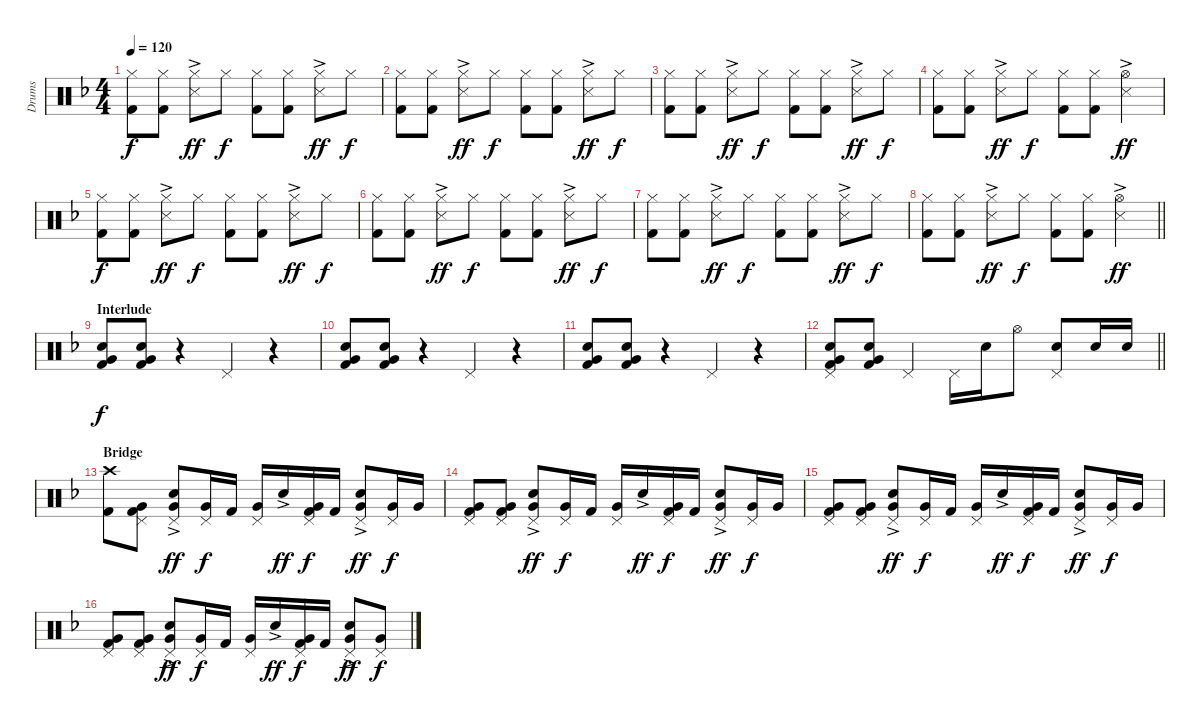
\track ("Drums" "Drums") {instrument percussion}
\staff {score}
\articulation defaults
\ts (4 4)
\tempo 120
\clef neutral
\ks f
("Hi-Hat (closed)" "Kick (hit) 2").8{dy f} ("Hi-Hat (closed)" "Kick (hit) 2").8 ("Hi-Hat (closed)" "Snare (side stick) 3"{ac}).8{dy ff} "Hi-Hat (closed)".8{dy f} ("Hi-Hat (closed)" "Kick (hit) 2").8 ("Hi-Hat (closed)" "Kick (hit) 2").8 ("Hi-Hat (closed)" "Snare (side stick) 3"{ac}).8{dy ff} "Hi-Hat (closed)".8{dy f} |
("Hi-Hat (closed)" "Kick (hit) 2").8 ("Hi-Hat (closed)" "Kick (hit) 2").8 ("Hi-Hat (closed)" "Snare (side stick) 3"{ac}).8{dy ff} "Hi-Hat (closed)".8{dy f} ("Hi-Hat (closed)" "Kick (hit) 2").8 ("Hi-Hat (closed)" "Kick (hit) 2").8 ("Hi-Hat (closed)" "Snare (side stick) 3"{ac}).8{dy ff} "Hi-Hat (closed)".8{dy f} |
("Hi-Hat (closed)" "Kick (hit) 2").8 ("Hi-Hat (closed)" "Kick (hit) 2").8 ("Hi-Hat (closed)" "Snare (side stick) 3"{ac}).8{dy ff} "Hi-Hat (closed)".8{dy f} ("Hi-Hat (closed)" "Kick (hit) 2").8 ("Hi-Hat (closed)" "Kick (hit) 2").8 ("Hi-Hat (closed)" "Snare (side stick) 3"{ac}).8{dy ff} "Hi-Hat (closed)".8{dy f} |
("Hi-Hat (closed)" "Kick (hit) 2").8 ("Hi-Hat (closed)" "Kick (hit) 2").8 ("Hi-Hat (closed)" "Snare (side stick) 3"{ac}).8{dy ff} "Hi-Hat (closed)".8{dy f} ("Hi-Hat (closed)" "Kick (hit) 2").8 ("Hi-Hat (closed)" "Kick (hit) 2").8 ("Hi-Hat (open)" "Snare (side stick) 3"{ac}).4{dy ff} |
("Hi-Hat (closed)" "Kick (hit) 2").8{dy f} ("Hi-Hat (closed)" "Kick (hit) 2").8 ("Hi-Hat (closed)" "Snare (side stick) 3"{ac}).8{dy ff} "Hi-Hat (closed)".8{dy f} ("Hi-Hat (closed)" "Kick (hit) 2").8 ("Hi-Hat (closed)" "Kick (hit) 2").8 ("Hi-Hat (closed)" "Snare (side stick) 3"{ac}).8{dy ff} "Hi-Hat (closed)".8{dy f} |
("Hi-Hat (closed)" "Kick (hit) 2").8 ("Hi-Hat (closed)" "Kick (hit) 2").8 ("Hi-Hat (closed)" "Snare (side stick) 3"{ac}).8{dy ff} "Hi-Hat (closed)".8{dy f} ("Hi-Hat (closed)" "Kick (hit) 2").8 ("Hi-Hat (closed)" "Kick (hit) 2").8 ("Hi-Hat (closed)" "Snare (side stick) 3"{ac}).8{dy ff} "Hi-Hat (closed)".8{dy f} |
("Hi-Hat (closed)" "Kick (hit) 2").8 ("Hi-Hat (closed)" "Kick (hit) 2").8 ("Hi-Hat (closed)" "Snare (side stick) 3"{ac}).8{dy ff} "Hi-Hat (closed)".8{dy f} ("Hi-Hat (closed)" "Kick (hit) 2").8 ("Hi-Hat (closed)" "Kick (hit) 2").8 ("Hi-Hat (closed)" "Snare (side stick) 3"{ac}).8{dy ff} "Hi-Hat (closed)".8{dy f} |
\barLineRight lightlight
("Hi-Hat (closed)" "Kick (hit) 2").8 ("Hi-Hat (closed)" "Kick (hit) 2").8 ("Hi-Hat (closed)" "Snare (side stick) 3"{ac}).8{dy ff} "Hi-Hat (closed)".8{dy f} ("Hi-Hat (closed)" "Kick (hit) 2").8 ("Hi-Hat (closed)" "Kick (hit) 2").8 ("Hi-Hat (open)" "Snare (side stick) 3"{ac}).4{dy ff} |
\section ("" "Interlude")
("Electric Snare (hit)" "Very Low Tom (hit)" "Kick (hit) 2").8{dy f} ("Electric Snare (hit)" "Very Low Tom (hit)" "Kick (hit) 2").8 r.4 "Pedal Hi-Hat (hit)".4 r.4 |
("Electric Snare (hit)" "Very Low Tom (hit)" "Kick (hit) 2").8 ("Electric Snare (hit)" "Very Low Tom (hit)" "Kick (hit) 2").8 r.4 "Pedal Hi-Hat (hit)".4 r.4 |
("Electric Snare (hit)" "Very Low Tom (hit)" "Kick (hit) 2").8 ("Electric Snare (hit)" "Very Low Tom (hit)" "Kick (hit) 2").8 r.4 "Pedal Hi-Hat (hit)".4 r.4 |
\barLineRight lightlight
("Pedal Hi-Hat (hit)" "Electric Snare (hit)" "Very Low Tom (hit)" "Kick (hit) 2").8 ("Electric Snare (hit)" "Very Low Tom (hit)" "Kick (hit) 2").8 "Pedal Hi-Hat (hit)".4 "Pedal Hi-Hat (hit)".16 "Electric Snare (hit)".16 "Hi-Hat (open)".8 ("Electric Snare (hit)" "Pedal Hi-Hat (hit)").8 "Electric Snare (hit)".16 "Electric Snare (hit)".16 |
\section ("" "Bridge")
("Crash high (hit)" "Kick (hit) 2").8 ("Pedal Hi-Hat (hit)" "Very Low Tom (hit)" "Kick (hit) 2").8 ("Pedal Hi-Hat (hit)" "Electric Snare (hit)"{ac} "Very Low Tom (hit)").8{dy ff} ("Pedal Hi-Hat (hit)" "Very Low Tom (hit)").16{dy f} "Kick (hit) 2".16 ("Pedal Hi-Hat (hit)" "Very Low Tom (hit)").16 "Electric Snare (hit)"{ac}.16{dy ff} ("Pedal Hi-Hat (hit)" "Very Low Tom (hit)" "Kick (hit) 2").16{dy f} "Kick (hit) 2".16 ("Pedal Hi-Hat (hit)" "Electric Snare (hit)"{ac} "Very Low Tom (hit)").8{dy ff} ("Pedal Hi-Hat (hit)" "Very Low Tom (hit)").16{dy f} "Very Low Tom (hit)".16 |
("Pedal Hi-Hat (hit)" "Very Low Tom (hit)" "Kick (hit) 2").8 ("Pedal Hi-Hat (hit)" "Very Low Tom (hit)" "Kick (hit) 2").8 ("Pedal Hi-Hat (hit)" "Electric Snare (hit)"{ac} "Very Low Tom (hit)").8{dy ff} ("Pedal Hi-Hat (hit)" "Very Low Tom (hit)").16{dy f} "Kick (hit) 2".16 ("Pedal Hi-Hat (hit)" "Very Low Tom (hit)").16 "Electric Snare (hit)"{ac}.16{dy ff} ("Pedal Hi-Hat (hit)" "Very Low Tom (hit)" "Kick (hit) 2").16{dy f} "Kick (hit) 2".16 ("Pedal Hi-Hat (hit)" "Electric Snare (hit)"{ac} "Very Low Tom (hit)").8{dy ff} ("Pedal Hi-Hat (hit)" "Very Low Tom (hit)").16{dy f} "Very Low Tom (hit)".16 |
("Pedal Hi-Hat (hit)" "Very Low Tom (hit)" "Kick (hit) 2").8 ("Pedal Hi-Hat (hit)" "Very Low Tom (hit)" "Kick (hit) 2").8 ("Pedal Hi-Hat (hit)" "Electric Snare (hit)"{ac} "Very Low Tom (hit)").8{dy ff} ("Pedal Hi-Hat (hit)" "Very Low Tom (hit)").16{dy f} "Kick (hit) 2".16 ("Pedal Hi-Hat (hit)" "Very Low Tom (hit)").16 "Electric Snare (hit)"{ac}.16{dy ff} ("Pedal Hi-Hat (hit)" "Very Low Tom (hit)" "Kick (hit) 2").16{dy f} "Kick (hit) 2".16 ("Pedal Hi-Hat (hit)" "Electric Snare (hit)"{ac} "Very Low Tom (hit)").8{dy ff} ("Pedal Hi-Hat (hit)" "Very Low Tom (hit)").16{dy f} "Very Low Tom (hit)".16 |
("Pedal Hi-Hat (hit)" "Very Low Tom (hit)" "Kick (hit) 2").8 ("Pedal Hi-Hat (hit)" "Very Low Tom (hit)" "Kick (hit) 2").8 ("Pedal Hi-Hat (hit)" "Electric Snare (hit)"{ac} "Very Low Tom (hit)").8{dy ff} ("Pedal Hi-Hat (hit)" "Very Low Tom (hit)").16{dy f} "Kick (hit) 2".16 ("Pedal Hi-Hat (hit)" "Very Low Tom (hit)").16 "Electric Snare (hit)"{ac}.16{dy ff} ("Pedal Hi-Hat (hit)" "Very Low Tom (hit)" "Kick (hit) 2").16{dy f} "Kick (hit) 2".16 ("Pedal Hi-Hat (hit)" "Electric Snare (hit)"{ac} "Very Low Tom (hit)").8{dy ff} ("Pedal Hi-Hat (hit)" "Very Low Tom (hit)").8{dy f}
